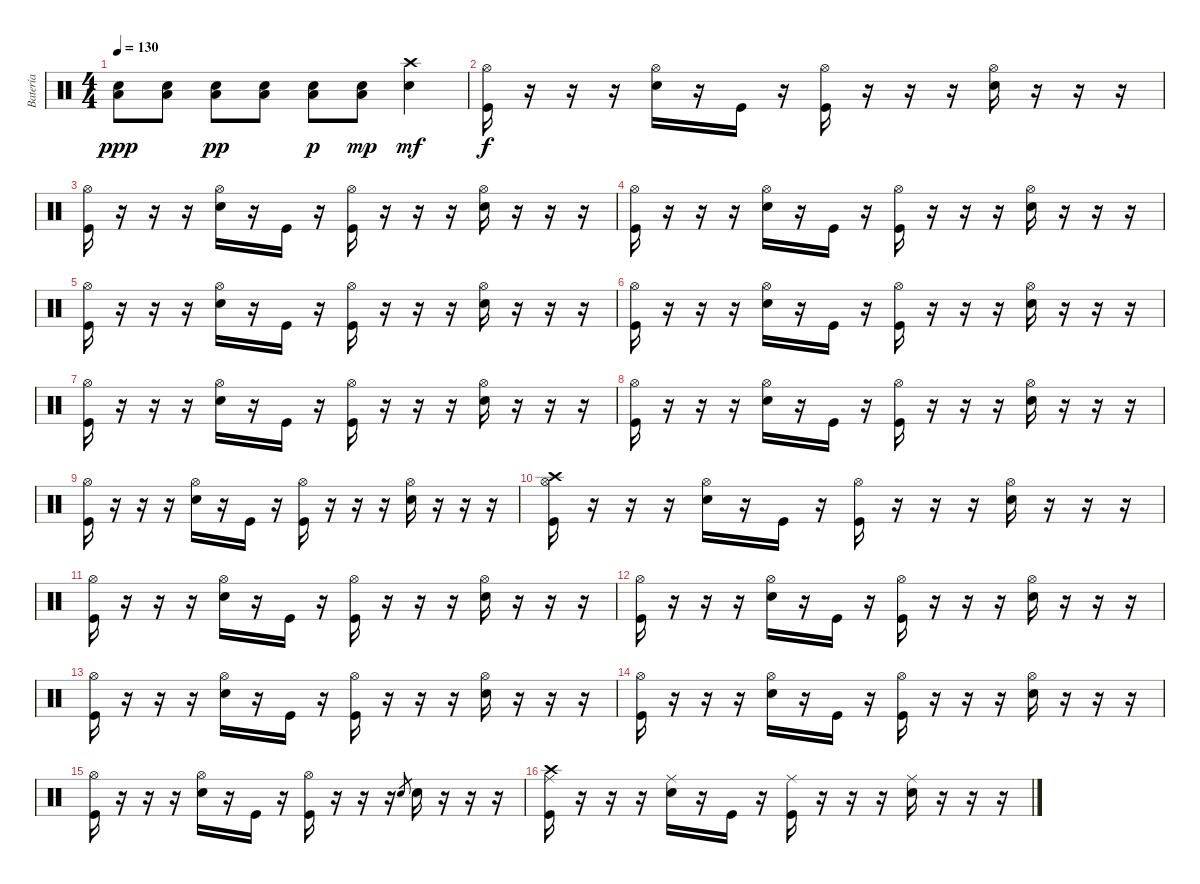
\track ("Batería" "Batería") {instrument percussion}
\staff {score}
\articulation defaults
\ts (4 4)
\tempo 130
\clef neutral
\ks c
("Low Floor Tom (hit)" "Snare (hit) 2").8{dy ppp} ("Low Floor Tom (hit)" "Snare (hit) 2").8 ("Low Floor Tom (hit)" "Snare (hit) 2").8{dy pp} ("Low Floor Tom (hit)" "Snare (hit) 2").8 ("Low Floor Tom (hit)" "Snare (hit) 2").8{dy p} ("Low Floor Tom (hit)" "Snare (hit) 2").8{dy mp} ("Crash high (hit)" "Snare (hit) 2").4{dy mf} |
("Hi-Hat (open)" "Kick (hit)").16{dy f} r.16 r.16 r.16 ("Hi-Hat (open)" "Snare (hit) 2").16 r.16 "Kick (hit)".16 r.16 ("Hi-Hat (open)" "Kick (hit)").16 r.16 r.16 r.16 ("Hi-Hat (open)" "Snare (hit) 2").16 r.16 r.16 r.16 |
("Hi-Hat (open)" "Kick (hit)").16 r.16 r.16 r.16 ("Hi-Hat (open)" "Snare (hit) 2").16 r.16 "Kick (hit)".16 r.16 ("Hi-Hat (open)" "Kick (hit)").16 r.16 r.16 r.16 ("Hi-Hat (open)" "Snare (hit) 2").16 r.16 r.16 r.16 |
("Hi-Hat (open)" "Kick (hit)").16 r.16 r.16 r.16 ("Hi-Hat (open)" "Snare (hit) 2").16 r.16 "Kick (hit)".16 r.16 ("Hi-Hat (open)" "Kick (hit)").16 r.16 r.16 r.16 ("Hi-Hat (open)" "Snare (hit) 2").16 r.16 r.16 r.16 |
("Hi-Hat (open)" "Kick (hit)").16 r.16 r.16 r.16 ("Hi-Hat (open)" "Snare (hit) 2").16 r.16 "Kick (hit)".16 r.16 ("Hi-Hat (open)" "Kick (hit)").16 r.16 r.16 r.16 ("Hi-Hat (open)" "Snare (hit) 2").16 r.16 r.16 r.16 |
("Hi-Hat (open)" "Kick (hit)").16 r.16 r.16 r.16 ("Hi-Hat (open)" "Snare (hit) 2").16 r.16 "Kick (hit)".16 r.16 ("Hi-Hat (open)" "Kick (hit)").16 r.16 r.16 r.16 ("Hi-Hat (open)" "Snare (hit) 2").16 r.16 r.16 r.16 |
("Hi-Hat (open)" "Kick (hit)").16 r.16 r.16 r.16 ("Hi-Hat (open)" "Snare (hit) 2").16 r.16 "Kick (hit)".16 r.16 ("Hi-Hat (open)" "Kick (hit)").16 r.16 r.16 r.16 ("Hi-Hat (open)" "Snare (hit) 2").16 r.16 r.16 r.16 |
("Hi-Hat (open)" "Kick (hit)").16 r.16 r.16 r.16 ("Hi-Hat (open)" "Snare (hit) 2").16 r.16 "Kick (hit)".16 r.16 ("Hi-Hat (open)" "Kick (hit)").16 r.16 r.16 r.16 ("Hi-Hat (open)" "Snare (hit) 2").16 r.16 r.16 r.16 |
("Hi-Hat (open)" "Kick (hit)").16 r.16 r.16 r.16 ("Hi-Hat (open)" "Snare (hit) 2").16 r.16 "Kick (hit)".16 r.16 ("Hi-Hat (open)" "Kick (hit)").16 r.16 r.16 r.16 ("Hi-Hat (open)" "Snare (hit) 2").16 r.16 r.16 r.16 |
("Crash high (hit)" "Hi-Hat (open)" "Kick (hit)").16 r.16 r.16 r.16 ("Hi-Hat (open)" "Snare (hit) 2").16 r.16 "Kick (hit)".16 r.16 ("Hi-Hat (open)" "Kick (hit)").16 r.16 r.16 r.16 ("Hi-Hat (open)" "Snare (hit) 2").16 r.16 r.16 r.16 |
("Hi-Hat (open)" "Kick (hit)").16 r.16 r.16 r.16 ("Hi-Hat (open)" "Snare (hit) 2").16 r.16 "Kick (hit)".16 r.16 ("Hi-Hat (open)" "Kick (hit)").16 r.16 r.16 r.16 ("Hi-Hat (open)" "Snare (hit) 2").16 r.16 r.16 r.16 |
("Hi-Hat (open)" "Kick (hit)").16 r.16 r.16 r.16 ("Hi-Hat (open)" "Snare (hit) 2").16 r.16 "Kick (hit)".16 r.16 ("Hi-Hat (open)" "Kick (hit)").16 r.16 r.16 r.16 ("Hi-Hat (open)" "Snare (hit) 2").16 r.16 r.16 r.16 |
("Hi-Hat (open)" "Kick (hit)").16 r.16 r.16 r.16 ("Hi-Hat (open)" "Snare (hit) 2").16 r.16 "Kick (hit)".16 r.16 ("Hi-Hat (open)" "Kick (hit)").16 r.16 r.16 r.16 ("Hi-Hat (open)" "Snare (hit) 2").16 r.16 r.16 r.16 |
("Hi-Hat (open)" "Kick (hit)").16 r.16 r.16 r.16 ("Hi-Hat (open)" "Snare (hit) 2").16 r.16 "Kick (hit)".16 r.16 ("Hi-Hat (open)" "Kick (hit)").16 r.16 r.16 r.16 ("Hi-Hat (open)" "Snare (hit) 2").16 r.16 r.16 r.16 |
("Hi-Hat (open)" "Kick (hit)").16 r.16 r.16 r.16 ("Hi-Hat (open)" "Snare (hit) 2").16 r.16 "Kick (hit)".16 r.16 ("Hi-Hat (open)" "Kick (hit)").16 r.16 r.16 r.16 "Snare (hit) 2".8{gr} "Snare (hit) 2".16 r.16 r.16 r.16 |
("Crash high (hit)" "Ride (middle)" "Kick (hit)").16 r.16 r.16 r.16 ("Ride (middle)" "Snare (hit) 2").16 r.16 "Kick (hit)".16 r.16 ("Ride (middle)" "Kick (hit)").16 r.16 r.16 r.16 ("Ride (middle)" "Snare (hit) 2").16 r.16 r.16 r.16
